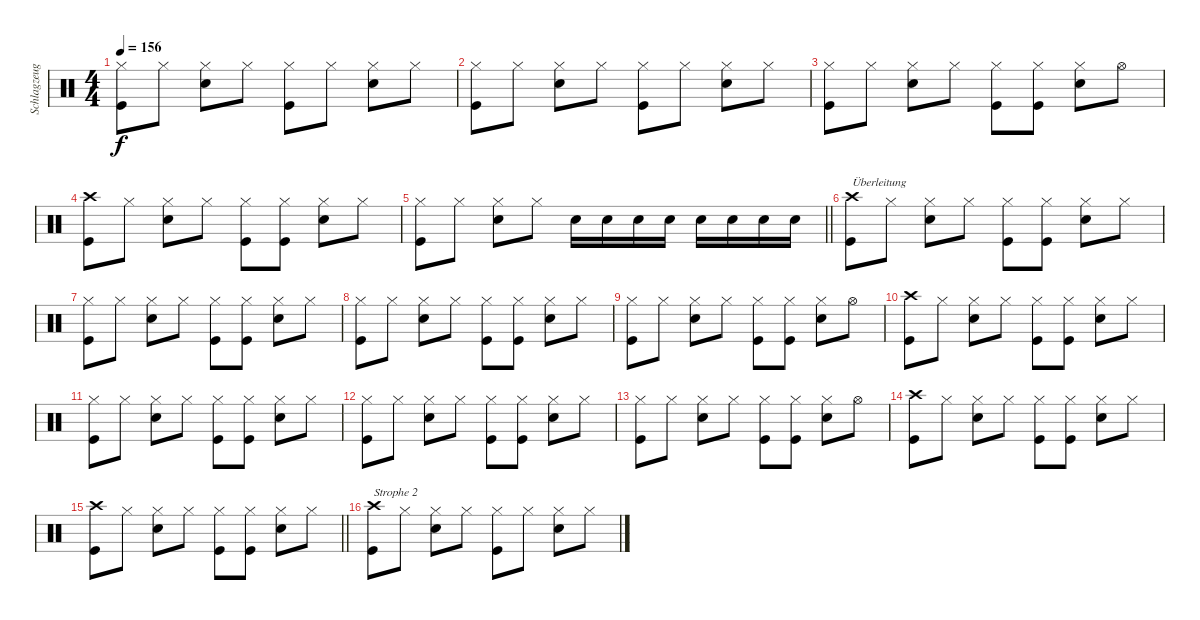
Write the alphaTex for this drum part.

\track ("Schlagzeug" "Schlagzeug") {instrument percussion}
\staff {score}
\articulation defaults
\ts (4 4)
\tempo 156
\clef neutral
\ks c
("Hi-Hat (closed)" "Kick (hit)").8{dy f} "Hi-Hat (closed)".8 ("Hi-Hat (closed)" "Electric Snare (hit)").8 "Hi-Hat (closed)".8 ("Hi-Hat (closed)" "Kick (hit)").8 "Hi-Hat (closed)".8 ("Hi-Hat (closed)" "Electric Snare (hit)").8 "Hi-Hat (closed)".8 |
("Hi-Hat (closed)" "Kick (hit)").8 "Hi-Hat (closed)".8 ("Hi-Hat (closed)" "Electric Snare (hit)").8 "Hi-Hat (closed)".8 ("Hi-Hat (closed)" "Kick (hit)").8 "Hi-Hat (closed)".8 ("Hi-Hat (closed)" "Electric Snare (hit)").8 "Hi-Hat (closed)".8 |
("Hi-Hat (closed)" "Kick (hit)").8 "Hi-Hat (closed)".8 ("Hi-Hat (closed)" "Electric Snare (hit)").8 "Hi-Hat (closed)".8 ("Hi-Hat (closed)" "Kick (hit)").8 ("Hi-Hat (closed)" "Kick (hit)").8 ("Hi-Hat (closed)" "Electric Snare (hit)").8 "Hi-Hat (open)".8 |
("Crash high (hit)" "Kick (hit)").8 "Hi-Hat (closed)".8 ("Hi-Hat (closed)" "Electric Snare (hit)").8 "Hi-Hat (closed)".8 ("Hi-Hat (closed)" "Kick (hit)").8 ("Hi-Hat (closed)" "Kick (hit)").8 ("Hi-Hat (closed)" "Electric Snare (hit)").8 "Hi-Hat (closed)".8 |
\barLineRight lightlight
("Hi-Hat (closed)" "Kick (hit)").8 "Hi-Hat (closed)".8 ("Hi-Hat (closed)" "Electric Snare (hit)").8 "Hi-Hat (closed)".8 "Electric Snare (hit)".16 "Electric Snare (hit)".16 "Electric Snare (hit)".16 "Electric Snare (hit)".16 "Electric Snare (hit)".16 "Electric Snare (hit)".16 "Electric Snare (hit)".16 "Electric Snare (hit)".16 |
("Crash high (hit)" "Kick (hit)").8{txt "Überleitung"} "Hi-Hat (closed)".8 ("Hi-Hat (closed)" "Electric Snare (hit)").8 "Hi-Hat (closed)".8 ("Hi-Hat (closed)" "Kick (hit)").8 ("Hi-Hat (closed)" "Kick (hit)").8 ("Hi-Hat (closed)" "Electric Snare (hit)").8 "Hi-Hat (closed)".8 |
("Hi-Hat (closed)" "Kick (hit)").8 "Hi-Hat (closed)".8 ("Hi-Hat (closed)" "Electric Snare (hit)").8 "Hi-Hat (closed)".8 ("Hi-Hat (closed)" "Kick (hit)").8 ("Hi-Hat (closed)" "Kick (hit)").8 ("Hi-Hat (closed)" "Electric Snare (hit)").8 "Hi-Hat (closed)".8 |
("Hi-Hat (closed)" "Kick (hit)").8 "Hi-Hat (closed)".8 ("Hi-Hat (closed)" "Electric Snare (hit)").8 "Hi-Hat (closed)".8 ("Hi-Hat (closed)" "Kick (hit)").8 ("Hi-Hat (closed)" "Kick (hit)").8 ("Hi-Hat (closed)" "Electric Snare (hit)").8 "Hi-Hat (closed)".8 |
("Hi-Hat (closed)" "Kick (hit)").8 "Hi-Hat (closed)".8 ("Hi-Hat (closed)" "Electric Snare (hit)").8 "Hi-Hat (closed)".8 ("Hi-Hat (closed)" "Kick (hit)").8 ("Hi-Hat (closed)" "Kick (hit)").8 ("Hi-Hat (closed)" "Electric Snare (hit)").8 "Hi-Hat (open)".8 |
("Crash high (hit)" "Kick (hit)").8 "Hi-Hat (closed)".8 ("Hi-Hat (closed)" "Electric Snare (hit)").8 "Hi-Hat (closed)".8 ("Hi-Hat (closed)" "Kick (hit)").8 ("Hi-Hat (closed)" "Kick (hit)").8 ("Hi-Hat (closed)" "Electric Snare (hit)").8 "Hi-Hat (closed)".8 |
("Hi-Hat (closed)" "Kick (hit)").8 "Hi-Hat (closed)".8 ("Hi-Hat (closed)" "Electric Snare (hit)").8 "Hi-Hat (closed)".8 ("Hi-Hat (closed)" "Kick (hit)").8 ("Hi-Hat (closed)" "Kick (hit)").8 ("Hi-Hat (closed)" "Electric Snare (hit)").8 "Hi-Hat (closed)".8 |
("Hi-Hat (closed)" "Kick (hit)").8 "Hi-Hat (closed)".8 ("Hi-Hat (closed)" "Electric Snare (hit)").8 "Hi-Hat (closed)".8 ("Hi-Hat (closed)" "Kick (hit)").8 ("Hi-Hat (closed)" "Kick (hit)").8 ("Hi-Hat (closed)" "Electric Snare (hit)").8 "Hi-Hat (closed)".8 |
("Hi-Hat (closed)" "Kick (hit)").8 "Hi-Hat (closed)".8 ("Hi-Hat (closed)" "Electric Snare (hit)").8 "Hi-Hat (closed)".8 ("Hi-Hat (closed)" "Kick (hit)").8 ("Hi-Hat (closed)" "Kick (hit)").8 ("Hi-Hat (closed)" "Electric Snare (hit)").8 "Hi-Hat (open)".8 |
("Crash high (hit)" "Kick (hit)").8 "Hi-Hat (closed)".8 ("Hi-Hat (closed)" "Electric Snare (hit)").8 "Hi-Hat (closed)".8 ("Hi-Hat (closed)" "Kick (hit)").8 ("Hi-Hat (closed)" "Kick (hit)").8 ("Hi-Hat (closed)" "Electric Snare (hit)").8 "Hi-Hat (closed)".8 |
\barLineRight lightlight
("Crash high (hit)" "Kick (hit)").8 "Hi-Hat (closed)".8 ("Hi-Hat (closed)" "Electric Snare (hit)").8 "Hi-Hat (closed)".8 ("Hi-Hat (closed)" "Kick (hit)").8 ("Hi-Hat (closed)" "Kick (hit)").8 ("Hi-Hat (closed)" "Electric Snare (hit)").8 "Hi-Hat (closed)".8 |
("Crash high (hit)" "Kick (hit)").8{txt "Strophe 2"} "Hi-Hat (closed)".8 ("Hi-Hat (closed)" "Electric Snare (hit)").8 "Hi-Hat (closed)".8 ("Hi-Hat (closed)" "Kick (hit)").8 "Hi-Hat (closed)".8 ("Hi-Hat (closed)" "Electric Snare (hit)").8 "Hi-Hat (closed)".8
